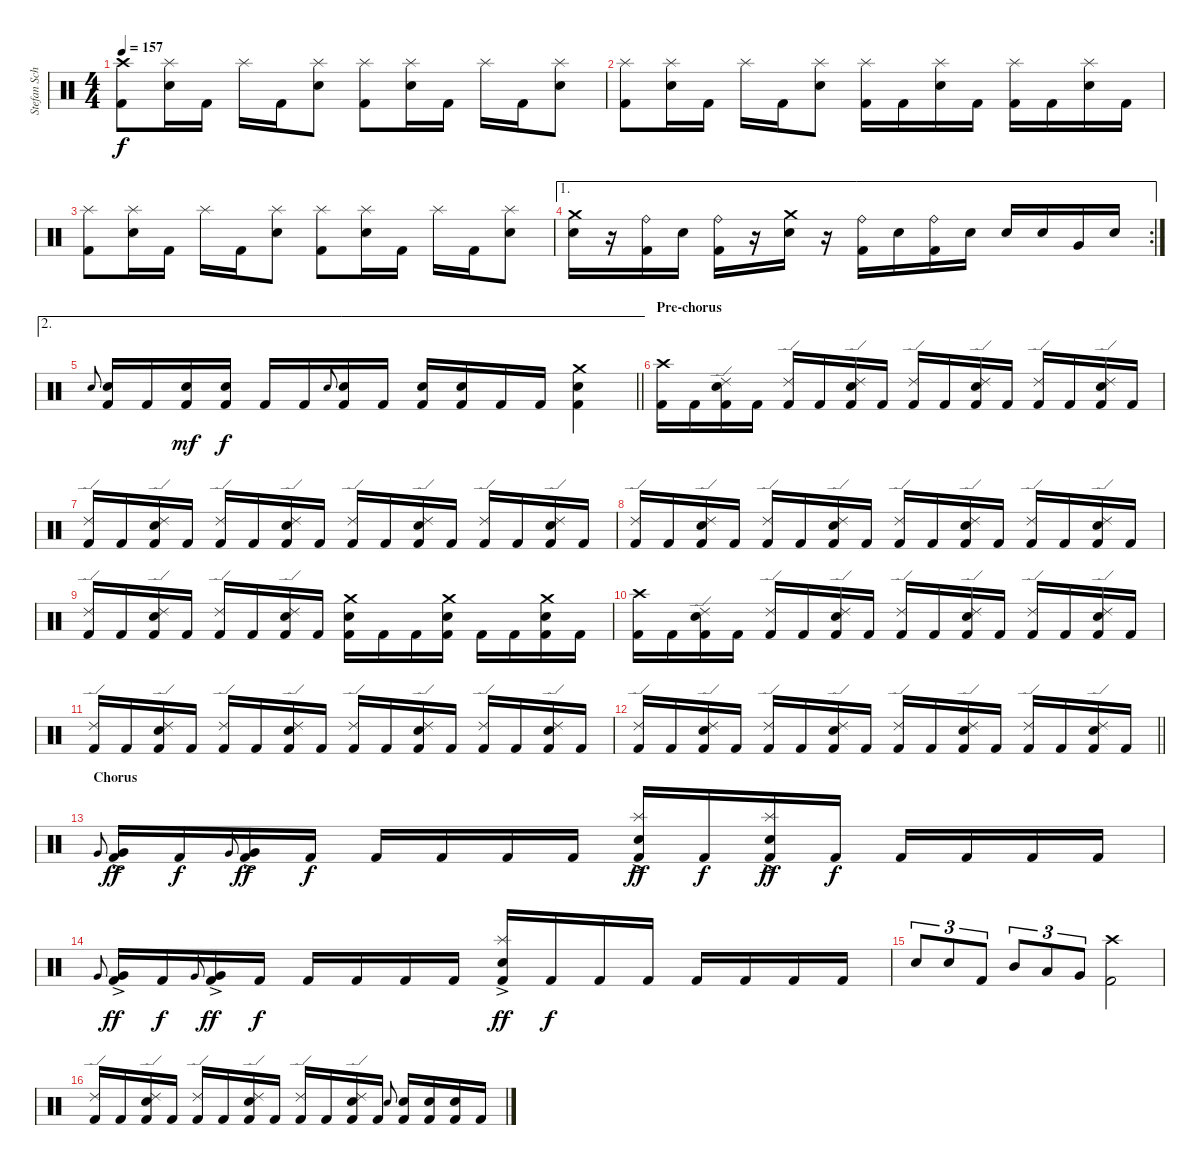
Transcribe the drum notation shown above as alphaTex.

\track ("Stefan Schwarzmann" "Stefan Sch") {instrument percussion}
\staff {score}
\articulation defaults
\ts (4 4)
\tempo 157
\clef neutral
\ks c
("Crash high (hit)" "Kick (hit) 2").8{dy f} ("Splash (hit)" "Snare (hit) 2").16 "Kick (hit) 2".16 "Splash (hit)".16 "Kick (hit) 2".16 ("Splash (hit)" "Snare (hit) 2").8 ("Splash (hit)" "Kick (hit) 2").8 ("Splash (hit)" "Snare (hit) 2").16 "Kick (hit) 2".16 "Splash (hit)".16 "Kick (hit) 2".16 ("Splash (hit)" "Snare (hit) 2").8 |
("Splash (hit)" "Kick (hit) 2").8 ("Splash (hit)" "Snare (hit) 2").16 "Kick (hit) 2".16 "Splash (hit)".16 "Kick (hit) 2".16 ("Splash (hit)" "Snare (hit) 2").8 ("Splash (hit)" "Kick (hit) 2").16 "Kick (hit) 2".16 ("Splash (hit)" "Snare (hit) 2").16 "Kick (hit) 2".16 ("Splash (hit)" "Kick (hit) 2").16 "Kick (hit) 2".16 ("Splash (hit)" "Snare (hit) 2").16 "Kick (hit) 2".16 |
("Splash (hit)" "Kick (hit) 2").8 ("Splash (hit)" "Snare (hit) 2").16 "Kick (hit) 2".16 "Splash (hit)".16 "Kick (hit) 2".16 ("Splash (hit)" "Snare (hit) 2").8 ("Splash (hit)" "Kick (hit) 2").8 ("Splash (hit)" "Snare (hit) 2").16 "Kick (hit) 2".16 "Splash (hit)".16 "Kick (hit) 2".16 ("Splash (hit)" "Snare (hit) 2").8 |
\ae 1
\rc 2
("Crash medium (hit)" "Snare (hit) 2").16 r.16 ("Ride (bell)" "Kick (hit) 2").16 "Snare (hit) 2".16 ("Ride (bell)" "Kick (hit) 2").16 r.16 ("Crash medium (hit)" "Snare (hit) 2").16 r.16 ("Ride (bell)" "Kick (hit) 2").16 "Snare (hit) 2".16 ("Ride (bell)" "Kick (hit) 2").16 "Snare (hit) 2".16 "Snare (hit) 2".16 "Snare (hit) 2".16 "Very Low Tom (hit)".16 "Snare (hit) 2".16 |
\ae 2
\barLineRight lightlight "Snare (hit) 2".8{gr onbeat}
("Snare (hit) 2" "Kick (hit) 2").16 "Kick (hit) 2".16 ("Snare (hit) 2" "Kick (hit) 2").16{dy mf} ("Snare (hit) 2" "Kick (hit) 2").16{dy f} "Kick (hit) 2".16 "Kick (hit) 2".16 "Snare (hit) 2".8{gr onbeat} ("Snare (hit) 2" "Kick (hit) 2").16 "Kick (hit) 2".16 ("Snare (hit) 2" "Kick (hit) 2").16 ("Snare (hit) 2" "Kick (hit) 2").16 "Kick (hit) 2".16 "Kick (hit) 2".16 ("Crash medium (hit)" "Snare (hit) 2" "Kick (hit) 2").4 |
\section ("" "Pre-chorus")
("Crash high (hit)" "Kick (hit) 2").16 "Kick (hit) 2".16 ("Ride (edge) 2" "Snare (hit) 2" "Kick (hit) 2").16 "Kick (hit) 2".16 ("Ride (edge) 2" "Kick (hit) 2").16 "Kick (hit) 2".16 ("Ride (edge) 2" "Snare (hit) 2" "Kick (hit) 2").16 "Kick (hit) 2".16 ("Ride (edge) 2" "Kick (hit) 2").16 "Kick (hit) 2".16 ("Ride (edge) 2" "Snare (hit) 2" "Kick (hit) 2").16 "Kick (hit) 2".16 ("Ride (edge) 2" "Kick (hit) 2").16 "Kick (hit) 2".16 ("Ride (edge) 2" "Snare (hit) 2" "Kick (hit) 2").16 "Kick (hit) 2".16 |
("Ride (edge) 2" "Kick (hit) 2").16 "Kick (hit) 2".16 ("Ride (edge) 2" "Snare (hit) 2" "Kick (hit) 2").16 "Kick (hit) 2".16 ("Ride (edge) 2" "Kick (hit) 2").16 "Kick (hit) 2".16 ("Ride (edge) 2" "Snare (hit) 2" "Kick (hit) 2").16 "Kick (hit) 2".16 ("Ride (edge) 2" "Kick (hit) 2").16 "Kick (hit) 2".16 ("Ride (edge) 2" "Snare (hit) 2" "Kick (hit) 2").16 "Kick (hit) 2".16 ("Ride (edge) 2" "Kick (hit) 2").16 "Kick (hit) 2".16 ("Ride (edge) 2" "Snare (hit) 2" "Kick (hit) 2").16 "Kick (hit) 2".16 |
("Ride (edge) 2" "Kick (hit) 2").16 "Kick (hit) 2".16 ("Ride (edge) 2" "Snare (hit) 2" "Kick (hit) 2").16 "Kick (hit) 2".16 ("Ride (edge) 2" "Kick (hit) 2").16 "Kick (hit) 2".16 ("Ride (edge) 2" "Snare (hit) 2" "Kick (hit) 2").16 "Kick (hit) 2".16 ("Ride (edge) 2" "Kick (hit) 2").16 "Kick (hit) 2".16 ("Ride (edge) 2" "Snare (hit) 2" "Kick (hit) 2").16 "Kick (hit) 2".16 ("Ride (edge) 2" "Kick (hit) 2").16 "Kick (hit) 2".16 ("Ride (edge) 2" "Snare (hit) 2" "Kick (hit) 2").16 "Kick (hit) 2".16 |
("Ride (edge) 2" "Kick (hit) 2").16 "Kick (hit) 2".16 ("Ride (edge) 2" "Snare (hit) 2" "Kick (hit) 2").16 "Kick (hit) 2".16 ("Ride (edge) 2" "Kick (hit) 2").16 "Kick (hit) 2".16 ("Ride (edge) 2" "Snare (hit) 2" "Kick (hit) 2").16 "Kick (hit) 2".16 ("Crash medium (hit)" "Snare (hit) 2" "Kick (hit) 2").16 "Kick (hit) 2".16 "Kick (hit) 2".16 ("Crash medium (hit)" "Snare (hit) 2" "Kick (hit) 2").16 "Kick (hit) 2".16 "Kick (hit) 2".16 ("Crash medium (hit)" "Snare (hit) 2" "Kick (hit) 2").16 "Kick (hit) 2".16 |
("Crash high (hit)" "Kick (hit) 2").16 "Kick (hit) 2".16 ("Ride (edge) 2" "Snare (hit) 2" "Kick (hit) 2").16 "Kick (hit) 2".16 ("Ride (edge) 2" "Kick (hit) 2").16 "Kick (hit) 2".16 ("Ride (edge) 2" "Snare (hit) 2" "Kick (hit) 2").16 "Kick (hit) 2".16 ("Ride (edge) 2" "Kick (hit) 2").16 "Kick (hit) 2".16 ("Ride (edge) 2" "Snare (hit) 2" "Kick (hit) 2").16 "Kick (hit) 2".16 ("Ride (edge) 2" "Kick (hit) 2").16 "Kick (hit) 2".16 ("Ride (edge) 2" "Snare (hit) 2" "Kick (hit) 2").16 "Kick (hit) 2".16 |
("Ride (edge) 2" "Kick (hit) 2").16 "Kick (hit) 2".16 ("Ride (edge) 2" "Snare (hit) 2" "Kick (hit) 2").16 "Kick (hit) 2".16 ("Ride (edge) 2" "Kick (hit) 2").16 "Kick (hit) 2".16 ("Ride (edge) 2" "Snare (hit) 2" "Kick (hit) 2").16 "Kick (hit) 2".16 ("Ride (edge) 2" "Kick (hit) 2").16 "Kick (hit) 2".16 ("Ride (edge) 2" "Snare (hit) 2" "Kick (hit) 2").16 "Kick (hit) 2".16 ("Ride (edge) 2" "Kick (hit) 2").16 "Kick (hit) 2".16 ("Ride (edge) 2" "Snare (hit) 2" "Kick (hit) 2").16 "Kick (hit) 2".16 |
\barLineRight lightlight
("Ride (edge) 2" "Kick (hit) 2").16 "Kick (hit) 2".16 ("Ride (edge) 2" "Snare (hit) 2" "Kick (hit) 2").16 "Kick (hit) 2".16 ("Ride (edge) 2" "Kick (hit) 2").16 "Kick (hit) 2".16 ("Ride (edge) 2" "Snare (hit) 2" "Kick (hit) 2").16 "Kick (hit) 2".16 ("Ride (edge) 2" "Kick (hit) 2").16 "Kick (hit) 2".16 ("Ride (edge) 2" "Snare (hit) 2" "Kick (hit) 2").16 "Kick (hit) 2".16 ("Ride (edge) 2" "Kick (hit) 2").16 "Kick (hit) 2".16 ("Ride (edge) 2" "Snare (hit) 2" "Kick (hit) 2").16 "Kick (hit) 2".16 |
\section ("" "Chorus")
"Very Low Tom (hit)".8{gr onbeat} ("Very Low Tom (hit)"{ac} "Kick (hit) 2").16{dy ff} "Kick (hit) 2".16{dy f} "Very Low Tom (hit)".8{gr onbeat} ("Very Low Tom (hit)"{ac} "Kick (hit) 2").16{dy ff} "Kick (hit) 2".16{dy f} "Kick (hit) 2".16 "Kick (hit) 2".16 "Kick (hit) 2".16 "Kick (hit) 2".16 ("Splash (hit)"{ac} "Snare (hit) 2" "Kick (hit) 2").16{dy ff} "Kick (hit) 2".16{dy f} ("Splash (hit)"{ac} "Snare (hit) 2" "Kick (hit) 2").16{dy ff} "Kick (hit) 2".16{dy f} "Kick (hit) 2".16 "Kick (hit) 2".16 "Kick (hit) 2".16 "Kick (hit) 2".16 |
"Very Low Tom (hit)".8{gr onbeat} ("Very Low Tom (hit)"{ac} "Kick (hit) 2").16{dy ff} "Kick (hit) 2".16{dy f} "Very Low Tom (hit)".8{gr onbeat} ("Very Low Tom (hit)"{ac} "Kick (hit) 2").16{dy ff} "Kick (hit) 2".16{dy f} "Kick (hit) 2".16 "Kick (hit) 2".16 "Kick (hit) 2".16 "Kick (hit) 2".16 ("Splash (hit)"{ac} "Snare (hit) 2" "Kick (hit) 2").16{dy ff} "Kick (hit) 2".16{dy f} "Kick (hit) 2".16 "Kick (hit) 2".16 "Kick (hit) 2".16 "Kick (hit) 2".16 "Kick (hit) 2".16 "Kick (hit) 2".16 |
"Snare (hit) 2".8{tu (3 2)} "Snare (hit) 2".8{tu (3 2)} "Kick (hit) 2".8{tu (3 2)} "Mid Tom (hit)".8{tu (3 2)} "Low Tom (hit)".8{tu (3 2)} "Very Low Tom (hit)".8{tu (3 2)} ("Crash high (hit)" "Kick (hit) 2").2 |
("Ride (edge) 2" "Kick (hit) 2").16 "Kick (hit) 2".16 ("Ride (edge) 2" "Snare (hit) 2" "Kick (hit) 2").16 "Kick (hit) 2".16 ("Ride (edge) 2" "Kick (hit) 2").16 "Kick (hit) 2".16 ("Ride (edge) 2" "Snare (hit) 2" "Kick (hit) 2").16 "Kick (hit) 2".16 ("Ride (edge) 2" "Kick (hit) 2").16 "Kick (hit) 2".16 ("Ride (edge) 2" "Snare (hit) 2" "Kick (hit) 2").16 "Kick (hit) 2".16 "Snare (hit) 2".8{gr onbeat} ("Snare (hit) 2" "Kick (hit) 2").16 ("Snare (hit) 2" "Kick (hit) 2").16 ("Snare (hit) 2" "Kick (hit) 2").16 "Kick (hit) 2".16
